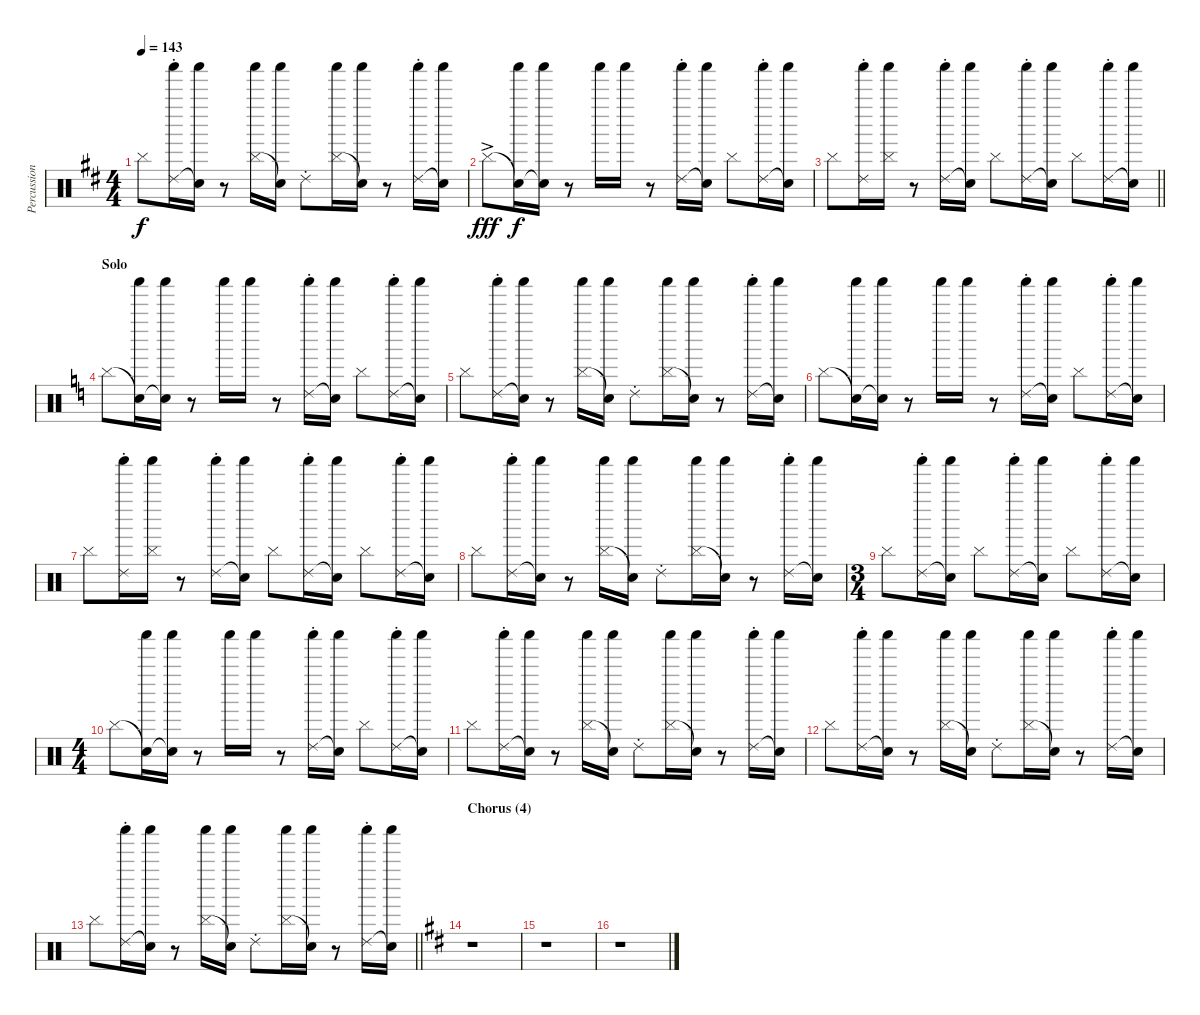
\track ("Percussion" "Percussion") {instrument percussion}
\staff {score}
\articulation defaults
\ts (4 4)
\tempo 143
\clef neutral
\ks d "Cymbal (hit)".8{dy f}
("Ride (choke) 2" "Shaker (hit)").16 ("Snare (hit)"{t} "Shaker (hit)").16 r.8 ("Cymbal (hit)" "Shaker (hit)").16 ("Snare (hit)"{t} "Shaker (hit)").16 "Ride (choke) 2".8 ("Cymbal (hit)" "Shaker (hit)").16 ("Snare (hit)"{t} "Shaker (hit)").16 r.8 ("Ride (choke) 2" "Shaker (hit)").16 ("Snare (hit)"{t} "Shaker (hit)").16 |
"Cymbal (hit)"{ac}.8{dy fff} ("Snare (hit)"{t} "Shaker (hit)").16{dy f} ("Snare (hit)"{t} "Shaker (hit)").16 r.8 "Shaker (hit)".16 "Shaker (hit)".16 r.8 ("Ride (choke) 2" "Shaker (hit)").16 ("Snare (hit)"{t} "Shaker (hit)").16 "Cymbal (hit)".8 ("Ride (choke) 2" "Shaker (hit)").16 ("Snare (hit)"{t} "Shaker (hit)").16 |
\barLineRight lightlight "Cymbal (hit)".8
("Ride (choke) 2" "Shaker (hit)").16 ("Cymbal (hit)" "Shaker (hit)").16 r.8 ("Ride (choke) 2" "Shaker (hit)").16 ("Snare (hit)"{t} "Shaker (hit)").16 "Cymbal (hit)".8 ("Ride (choke) 2" "Shaker (hit)").16 ("Snare (hit)"{t} "Shaker (hit)").16 "Cymbal (hit)".8 ("Ride (choke) 2" "Shaker (hit)").16 ("Snare (hit)"{t} "Shaker (hit)").16 |
\section ("" "Solo")
\ks aminor "Cymbal (hit)".8
("Snare (hit)"{t} "Shaker (hit)").16 ("Snare (hit)"{t} "Shaker (hit)").16 r.8 "Shaker (hit)".16 "Shaker (hit)".16 r.8 ("Ride (choke) 2" "Shaker (hit)").16 ("Snare (hit)"{t} "Shaker (hit)").16 "Cymbal (hit)".8 ("Ride (choke) 2" "Shaker (hit)").16 ("Snare (hit)"{t} "Shaker (hit)").16 |
"Cymbal (hit)".8 ("Ride (choke) 2" "Shaker (hit)").16 ("Snare (hit)"{t} "Shaker (hit)").16 r.8 ("Cymbal (hit)" "Shaker (hit)").16 ("Snare (hit)"{t} "Shaker (hit)").16 "Ride (choke) 2".8 ("Cymbal (hit)" "Shaker (hit)").16 ("Snare (hit)"{t} "Shaker (hit)").16 r.8 ("Ride (choke) 2" "Shaker (hit)").16 ("Snare (hit)"{t} "Shaker (hit)").16 |
"Cymbal (hit)".8 ("Snare (hit)"{t} "Shaker (hit)").16 ("Snare (hit)"{t} "Shaker (hit)").16 r.8 "Shaker (hit)".16 "Shaker (hit)".16 r.8 ("Ride (choke) 2" "Shaker (hit)").16 ("Snare (hit)"{t} "Shaker (hit)").16 "Cymbal (hit)".8 ("Ride (choke) 2" "Shaker (hit)").16 ("Snare (hit)"{t} "Shaker (hit)").16 |
"Cymbal (hit)".8 ("Ride (choke) 2" "Shaker (hit)").16 ("Cymbal (hit)" "Shaker (hit)").16 r.8 ("Ride (choke) 2" "Shaker (hit)").16 ("Snare (hit)"{t} "Shaker (hit)").16 "Cymbal (hit)".8 ("Ride (choke) 2" "Shaker (hit)").16 ("Snare (hit)"{t} "Shaker (hit)").16 "Cymbal (hit)".8 ("Ride (choke) 2" "Shaker (hit)").16 ("Snare (hit)"{t} "Shaker (hit)").16 |
"Cymbal (hit)".8 ("Ride (choke) 2" "Shaker (hit)").16 ("Snare (hit)"{t} "Shaker (hit)").16 r.8 ("Cymbal (hit)" "Shaker (hit)").16 ("Snare (hit)"{t} "Shaker (hit)").16 "Ride (choke) 2".8 ("Cymbal (hit)" "Shaker (hit)").16 ("Snare (hit)"{t} "Shaker (hit)").16 r.8 ("Ride (choke) 2" "Shaker (hit)").16 ("Snare (hit)"{t} "Shaker (hit)").16 |
\ts (3 4)
"Cymbal (hit)".8 ("Ride (choke) 2" "Shaker (hit)").16 ("Snare (hit)"{t} "Shaker (hit)").16 "Cymbal (hit)".8 ("Ride (choke) 2" "Shaker (hit)").16 ("Snare (hit)"{t} "Shaker (hit)").16 "Cymbal (hit)".8 ("Ride (choke) 2" "Shaker (hit)").16 ("Snare (hit)"{t} "Shaker (hit)").16 |
\ts (4 4)
"Cymbal (hit)".8 ("Snare (hit)"{t} "Shaker (hit)").16 ("Snare (hit)"{t} "Shaker (hit)").16 r.8 "Shaker (hit)".16 "Shaker (hit)".16 r.8 ("Ride (choke) 2" "Shaker (hit)").16 ("Snare (hit)"{t} "Shaker (hit)").16 "Cymbal (hit)".8 ("Ride (choke) 2" "Shaker (hit)").16 ("Snare (hit)"{t} "Shaker (hit)").16 |
"Cymbal (hit)".8 ("Ride (choke) 2" "Shaker (hit)").16 ("Snare (hit)"{t} "Shaker (hit)").16 r.8 ("Cymbal (hit)" "Shaker (hit)").16 ("Snare (hit)"{t} "Shaker (hit)").16 "Ride (choke) 2".8 ("Cymbal (hit)" "Shaker (hit)").16 ("Snare (hit)"{t} "Shaker (hit)").16 r.8 ("Ride (choke) 2" "Shaker (hit)").16 ("Snare (hit)"{t} "Shaker (hit)").16 |
"Cymbal (hit)".8 ("Ride (choke) 2" "Shaker (hit)").16 ("Snare (hit)"{t} "Shaker (hit)").16 r.8 ("Cymbal (hit)" "Shaker (hit)").16 ("Snare (hit)"{t} "Shaker (hit)").16 "Ride (choke) 2".8 ("Cymbal (hit)" "Shaker (hit)").16 ("Snare (hit)"{t} "Shaker (hit)").16 r.8 ("Ride (choke) 2" "Shaker (hit)").16 ("Snare (hit)"{t} "Shaker (hit)").16 |
\barLineRight lightlight "Cymbal (hit)".8
("Ride (choke) 2" "Shaker (hit)").16 ("Snare (hit)"{t} "Shaker (hit)").16 r.8 ("Cymbal (hit)" "Shaker (hit)").16 ("Snare (hit)"{t} "Shaker (hit)").16 "Ride (choke) 2".8 ("Cymbal (hit)" "Shaker (hit)").16 ("Snare (hit)"{t} "Shaker (hit)").16 r.8 ("Ride (choke) 2" "Shaker (hit)").16 ("Snare (hit)"{t} "Shaker (hit)").16 |
\section ("" "Chorus (4)")
\ks d
r.1 |
r.1 |
r.1
